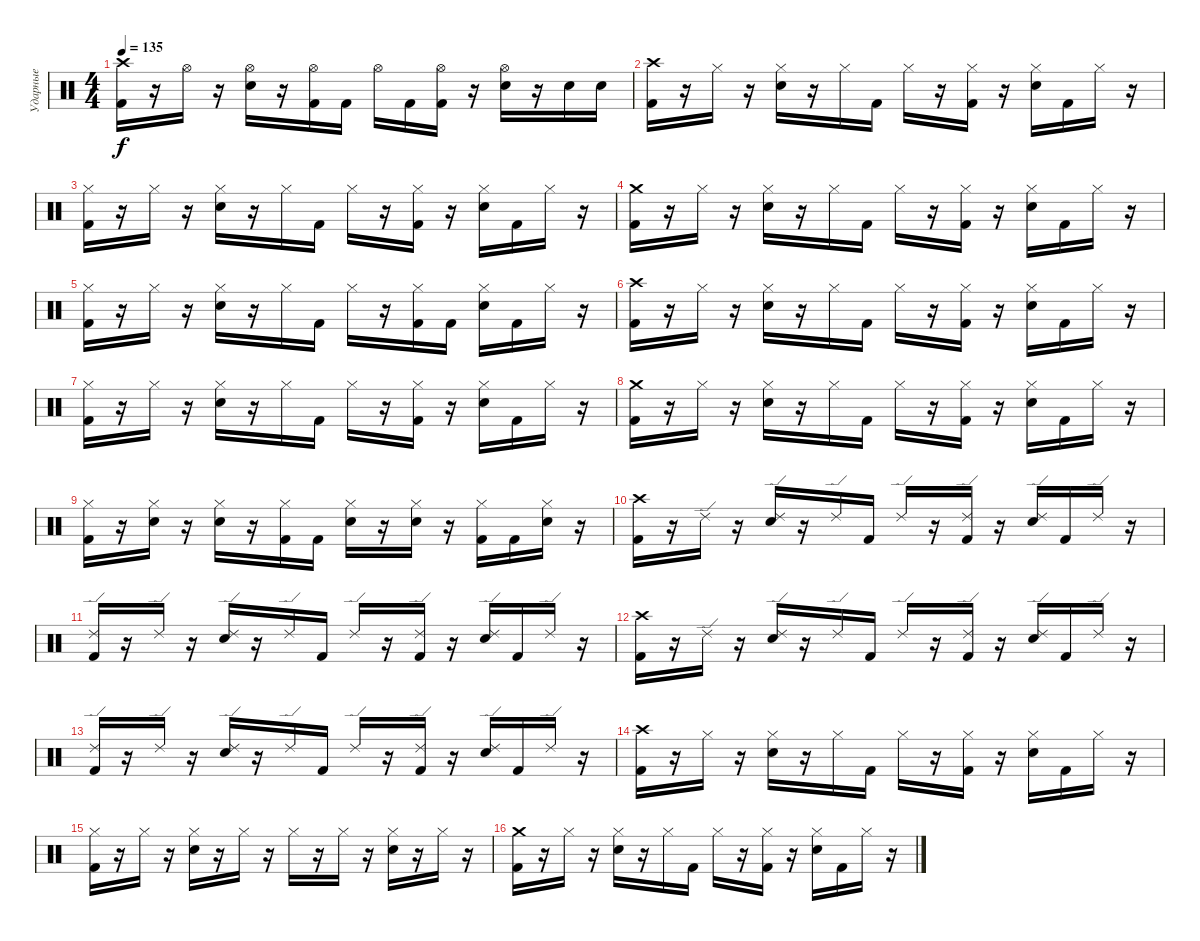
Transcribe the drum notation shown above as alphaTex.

\track ("Ударные" "Ударные") {instrument percussion}
\staff {score}
\articulation defaults
\ts (4 4)
\tempo 135
\clef neutral
\ks c
("Crash high (hit)" "Kick (hit) 2").16{dy f} r.16 "Hi-Hat (open)".16 r.16 ("Hi-Hat (open)" "Electric Snare (hit)").16 r.16 ("Hi-Hat (open)" "Kick (hit) 2").16 "Kick (hit) 2".16 "Hi-Hat (open)".16 "Kick (hit) 2".16 ("Hi-Hat (open)" "Kick (hit) 2").16 r.16 ("Hi-Hat (open)" "Electric Snare (hit)").16 r.16 "Electric Snare (hit)".16 "Electric Snare (hit)".16 |
("Crash high (hit)" "Kick (hit) 2").16 r.16 "Hi-Hat (closed)".16 r.16 ("Hi-Hat (closed)" "Electric Snare (hit)").16 r.16 "Hi-Hat (closed)".16 "Kick (hit) 2".16 "Hi-Hat (closed)".16 r.16 ("Hi-Hat (closed)" "Kick (hit) 2").16 r.16 ("Hi-Hat (closed)" "Electric Snare (hit)").16 "Kick (hit) 2".16 "Hi-Hat (closed)".16 r.16 |
("Hi-Hat (closed)" "Kick (hit) 2").16 r.16 "Hi-Hat (closed)".16 r.16 ("Hi-Hat (closed)" "Electric Snare (hit)").16 r.16 "Hi-Hat (closed)".16 "Kick (hit) 2".16 "Hi-Hat (closed)".16 r.16 ("Hi-Hat (closed)" "Kick (hit) 2").16 r.16 ("Hi-Hat (closed)" "Electric Snare (hit)").16 "Kick (hit) 2".16 "Hi-Hat (closed)".16 r.16 |
("Crash medium (hit)" "Kick (hit) 2").16 r.16 "Hi-Hat (closed)".16 r.16 ("Hi-Hat (closed)" "Electric Snare (hit)").16 r.16 "Hi-Hat (closed)".16 "Kick (hit) 2".16 "Hi-Hat (closed)".16 r.16 ("Hi-Hat (closed)" "Kick (hit) 2").16 r.16 ("Hi-Hat (closed)" "Electric Snare (hit)").16 "Kick (hit) 2".16 "Hi-Hat (closed)".16 r.16 |
("Hi-Hat (closed)" "Kick (hit) 2").16 r.16 "Hi-Hat (closed)".16 r.16 ("Hi-Hat (closed)" "Electric Snare (hit)").16 r.16 "Hi-Hat (closed)".16 "Kick (hit) 2".16 "Hi-Hat (closed)".16 r.16 ("Hi-Hat (closed)" "Kick (hit) 2").16 "Kick (hit) 2".16 ("Hi-Hat (closed)" "Electric Snare (hit)").16 "Kick (hit) 2".16 "Hi-Hat (closed)".16 r.16 |
("Crash high (hit)" "Kick (hit) 2").16 r.16 "Hi-Hat (closed)".16 r.16 ("Hi-Hat (closed)" "Electric Snare (hit)").16 r.16 "Hi-Hat (closed)".16 "Kick (hit) 2".16 "Hi-Hat (closed)".16 r.16 ("Hi-Hat (closed)" "Kick (hit) 2").16 r.16 ("Hi-Hat (closed)" "Electric Snare (hit)").16 "Kick (hit) 2".16 "Hi-Hat (closed)".16 r.16 |
("Hi-Hat (closed)" "Kick (hit) 2").16 r.16 "Hi-Hat (closed)".16 r.16 ("Hi-Hat (closed)" "Electric Snare (hit)").16 r.16 "Hi-Hat (closed)".16 "Kick (hit) 2".16 "Hi-Hat (closed)".16 r.16 ("Hi-Hat (closed)" "Kick (hit) 2").16 r.16 ("Hi-Hat (closed)" "Electric Snare (hit)").16 "Kick (hit) 2".16 "Hi-Hat (closed)".16 r.16 |
("Crash medium (hit)" "Kick (hit) 2").16 r.16 "Hi-Hat (closed)".16 r.16 ("Hi-Hat (closed)" "Electric Snare (hit)").16 r.16 "Hi-Hat (closed)".16 "Kick (hit) 2".16 "Hi-Hat (closed)".16 r.16 ("Hi-Hat (closed)" "Kick (hit) 2").16 r.16 ("Hi-Hat (closed)" "Electric Snare (hit)").16 "Kick (hit) 2".16 "Hi-Hat (closed)".16 r.16 |
("Hi-Hat (closed)" "Kick (hit) 2").16 r.16 ("Hi-Hat (closed)" "Electric Snare (hit)").16 r.16 ("Hi-Hat (closed)" "Electric Snare (hit)").16 r.16 ("Hi-Hat (closed)" "Kick (hit) 2").16 "Kick (hit) 2".16 ("Hi-Hat (closed)" "Electric Snare (hit)").16 r.16 ("Hi-Hat (closed)" "Electric Snare (hit)").16 r.16 ("Hi-Hat (closed)" "Kick (hit) 2").16 "Kick (hit) 2".16 ("Hi-Hat (closed)" "Electric Snare (hit)").16 r.16 |
("Crash high (hit)" "Kick (hit) 2").16 r.16 "Ride (edge) 2".16 r.16 ("Ride (edge) 2" "Electric Snare (hit)").16 r.16 "Ride (edge) 2".16 "Kick (hit) 2".16 "Ride (edge) 2".16 r.16 ("Ride (edge) 2" "Kick (hit) 2").16 r.16 ("Ride (edge) 2" "Electric Snare (hit)").16 "Kick (hit) 2".16 "Ride (edge) 2".16 r.16 |
("Ride (edge) 2" "Kick (hit) 2").16 r.16 "Ride (edge) 2".16 r.16 ("Ride (edge) 2" "Electric Snare (hit)").16 r.16 "Ride (edge) 2".16 "Kick (hit) 2".16 "Ride (edge) 2".16 r.16 ("Ride (edge) 2" "Kick (hit) 2").16 r.16 ("Ride (edge) 2" "Electric Snare (hit)").16 "Kick (hit) 2".16 "Ride (edge) 2".16 r.16 |
("Crash high (hit)" "Kick (hit) 2").16 r.16 "Ride (edge) 2".16 r.16 ("Ride (edge) 2" "Electric Snare (hit)").16 r.16 "Ride (edge) 2".16 "Kick (hit) 2".16 "Ride (edge) 2".16 r.16 ("Ride (edge) 2" "Kick (hit) 2").16 r.16 ("Ride (edge) 2" "Electric Snare (hit)").16 "Kick (hit) 2".16 "Ride (edge) 2".16 r.16 |
("Ride (edge) 2" "Kick (hit) 2").16 r.16 "Ride (edge) 2".16 r.16 ("Ride (edge) 2" "Electric Snare (hit)").16 r.16 "Ride (edge) 2".16 "Kick (hit) 2".16 "Ride (edge) 2".16 r.16 ("Ride (edge) 2" "Kick (hit) 2").16 r.16 ("Ride (edge) 2" "Electric Snare (hit)").16 "Kick (hit) 2".16 "Ride (edge) 2".16 r.16 |
("Crash high (hit)" "Kick (hit) 2").16 r.16 "Hi-Hat (closed)".16 r.16 ("Hi-Hat (closed)" "Electric Snare (hit)").16 r.16 "Hi-Hat (closed)".16 "Kick (hit) 2".16 "Hi-Hat (closed)".16 r.16 ("Hi-Hat (closed)" "Kick (hit) 2").16 r.16 ("Hi-Hat (closed)" "Electric Snare (hit)").16 "Kick (hit) 2".16 "Hi-Hat (closed)".16 r.16 |
("Hi-Hat (closed)" "Kick (hit) 2").16 r.16 "Hi-Hat (closed)".16 r.16 ("Hi-Hat (closed)" "Electric Snare (hit)").16 r.16 "Hi-Hat (closed)".16 r.16 "Hi-Hat (closed)".16 r.16 "Hi-Hat (closed)".16 r.16 ("Hi-Hat (closed)" "Electric Snare (hit)").16 r.16 "Hi-Hat (closed)".16 r.16 |
("Crash medium (hit)" "Kick (hit) 2").16 r.16 "Hi-Hat (closed)".16 r.16 ("Hi-Hat (closed)" "Electric Snare (hit)").16 r.16 "Hi-Hat (closed)".16 "Kick (hit) 2".16 "Hi-Hat (closed)".16 r.16 ("Hi-Hat (closed)" "Kick (hit) 2").16 r.16 ("Hi-Hat (closed)" "Electric Snare (hit)").16 "Kick (hit) 2".16 "Hi-Hat (closed)".16 r.16
